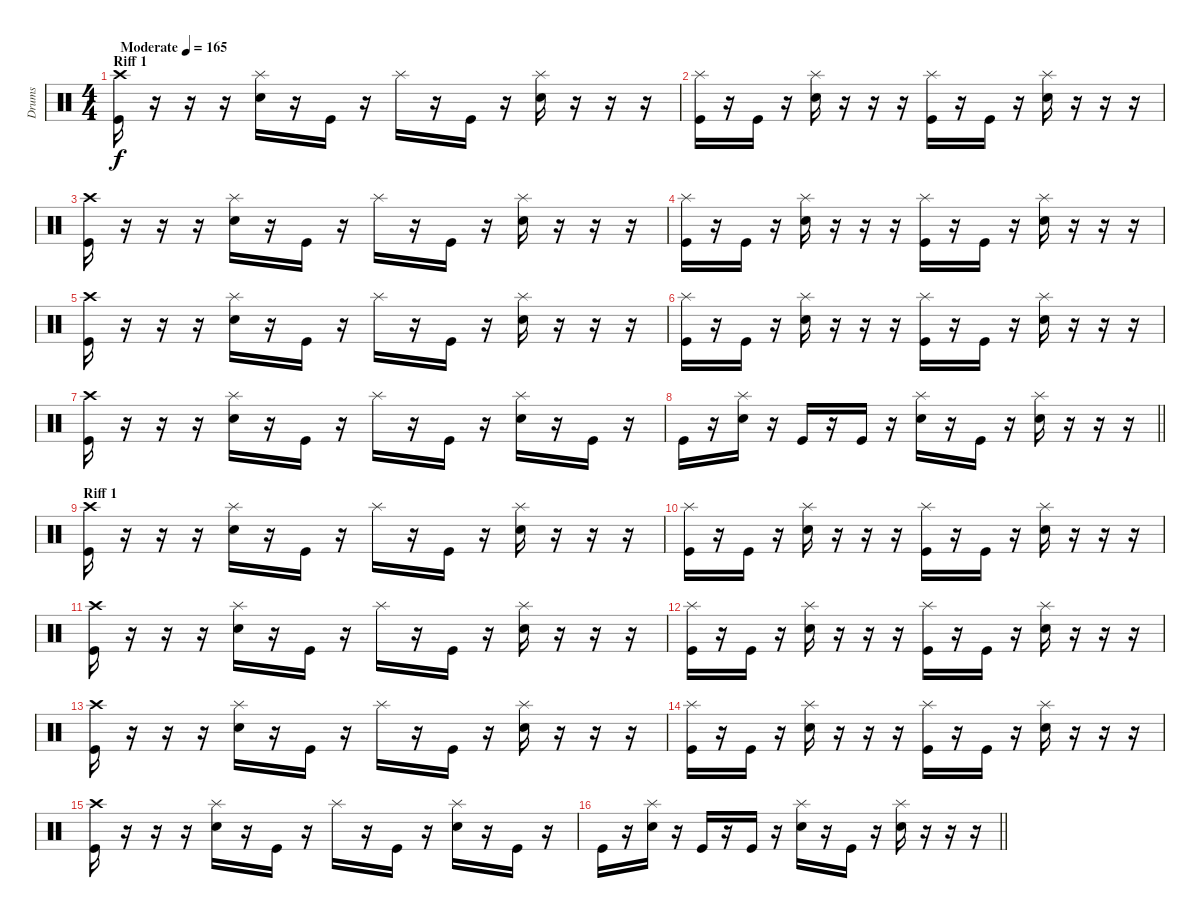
\track ("Drums" "Drums") {instrument percussion}
\staff {score}
\articulation defaults
\ts (4 4)
\section ("" "Riff 1")
\tempo (165 "Moderate")
\clef neutral
\ks c
("Crash high (hit)" "Kick (hit)").16{dy f} r.16 r.16 r.16 ("Splash (hit)" "Electric Snare (hit)").16 r.16 "Kick (hit)".16 r.16 "Splash (hit)".16 r.16 "Kick (hit)".16 r.16 ("Splash (hit)" "Electric Snare (hit)").16 r.16 r.16 r.16 |
("Splash (hit)" "Kick (hit)").16 r.16 "Kick (hit)".16 r.16 ("Splash (hit)" "Electric Snare (hit)").16 r.16 r.16 r.16 ("Splash (hit)" "Kick (hit)").16 r.16 "Kick (hit)".16 r.16 ("Splash (hit)" "Electric Snare (hit)").16 r.16 r.16 r.16 |
("Crash high (hit)" "Kick (hit)").16 r.16 r.16 r.16 ("Splash (hit)" "Electric Snare (hit)").16 r.16 "Kick (hit)".16 r.16 "Splash (hit)".16 r.16 "Kick (hit)".16 r.16 ("Splash (hit)" "Electric Snare (hit)").16 r.16 r.16 r.16 |
("Splash (hit)" "Kick (hit)").16 r.16 "Kick (hit)".16 r.16 ("Splash (hit)" "Electric Snare (hit)").16 r.16 r.16 r.16 ("Splash (hit)" "Kick (hit)").16 r.16 "Kick (hit)".16 r.16 ("Splash (hit)" "Electric Snare (hit)").16 r.16 r.16 r.16 |
("Crash high (hit)" "Kick (hit)").16 r.16 r.16 r.16 ("Splash (hit)" "Electric Snare (hit)").16 r.16 "Kick (hit)".16 r.16 "Splash (hit)".16 r.16 "Kick (hit)".16 r.16 ("Splash (hit)" "Electric Snare (hit)").16 r.16 r.16 r.16 |
("Splash (hit)" "Kick (hit)").16 r.16 "Kick (hit)".16 r.16 ("Splash (hit)" "Electric Snare (hit)").16 r.16 r.16 r.16 ("Splash (hit)" "Kick (hit)").16 r.16 "Kick (hit)".16 r.16 ("Splash (hit)" "Electric Snare (hit)").16 r.16 r.16 r.16 |
("Crash high (hit)" "Kick (hit)").16 r.16 r.16 r.16 ("Splash (hit)" "Electric Snare (hit)").16 r.16 "Kick (hit)".16 r.16 "Splash (hit)".16 r.16 "Kick (hit)".16 r.16 ("Splash (hit)" "Electric Snare (hit)").16 r.16 "Kick (hit)".16 r.16 |
\barLineRight lightlight "Kick (hit)".16
r.16 ("Splash (hit)" "Electric Snare (hit)").16 r.16 "Kick (hit)".16 r.16 "Kick (hit)".16 r.16 ("Splash (hit)" "Electric Snare (hit)").16 r.16 "Kick (hit)".16 r.16 ("Splash (hit)" "Electric Snare (hit)").16 r.16 r.16 r.16 |
\section ("" "Riff 1")
("Crash high (hit)" "Kick (hit)").16 r.16 r.16 r.16 ("Splash (hit)" "Electric Snare (hit)").16 r.16 "Kick (hit)".16 r.16 "Splash (hit)".16 r.16 "Kick (hit)".16 r.16 ("Splash (hit)" "Electric Snare (hit)").16 r.16 r.16 r.16 |
("Splash (hit)" "Kick (hit)").16 r.16 "Kick (hit)".16 r.16 ("Splash (hit)" "Electric Snare (hit)").16 r.16 r.16 r.16 ("Splash (hit)" "Kick (hit)").16 r.16 "Kick (hit)".16 r.16 ("Splash (hit)" "Electric Snare (hit)").16 r.16 r.16 r.16 |
("Crash high (hit)" "Kick (hit)").16 r.16 r.16 r.16 ("Splash (hit)" "Electric Snare (hit)").16 r.16 "Kick (hit)".16 r.16 "Splash (hit)".16 r.16 "Kick (hit)".16 r.16 ("Splash (hit)" "Electric Snare (hit)").16 r.16 r.16 r.16 |
("Splash (hit)" "Kick (hit)").16 r.16 "Kick (hit)".16 r.16 ("Splash (hit)" "Electric Snare (hit)").16 r.16 r.16 r.16 ("Splash (hit)" "Kick (hit)").16 r.16 "Kick (hit)".16 r.16 ("Splash (hit)" "Electric Snare (hit)").16 r.16 r.16 r.16 |
("Crash high (hit)" "Kick (hit)").16 r.16 r.16 r.16 ("Splash (hit)" "Electric Snare (hit)").16 r.16 "Kick (hit)".16 r.16 "Splash (hit)".16 r.16 "Kick (hit)".16 r.16 ("Splash (hit)" "Electric Snare (hit)").16 r.16 r.16 r.16 |
("Splash (hit)" "Kick (hit)").16 r.16 "Kick (hit)".16 r.16 ("Splash (hit)" "Electric Snare (hit)").16 r.16 r.16 r.16 ("Splash (hit)" "Kick (hit)").16 r.16 "Kick (hit)".16 r.16 ("Splash (hit)" "Electric Snare (hit)").16 r.16 r.16 r.16 |
("Crash high (hit)" "Kick (hit)").16 r.16 r.16 r.16 ("Splash (hit)" "Electric Snare (hit)").16 r.16 "Kick (hit)".16 r.16 "Splash (hit)".16 r.16 "Kick (hit)".16 r.16 ("Splash (hit)" "Electric Snare (hit)").16 r.16 "Kick (hit)".16 r.16 |
\barLineRight lightlight "Kick (hit)".16
r.16 ("Splash (hit)" "Electric Snare (hit)").16 r.16 "Kick (hit)".16 r.16 "Kick (hit)".16 r.16 ("Splash (hit)" "Electric Snare (hit)").16 r.16 "Kick (hit)".16 r.16 ("Splash (hit)" "Electric Snare (hit)").16 r.16 r.16 r.16
